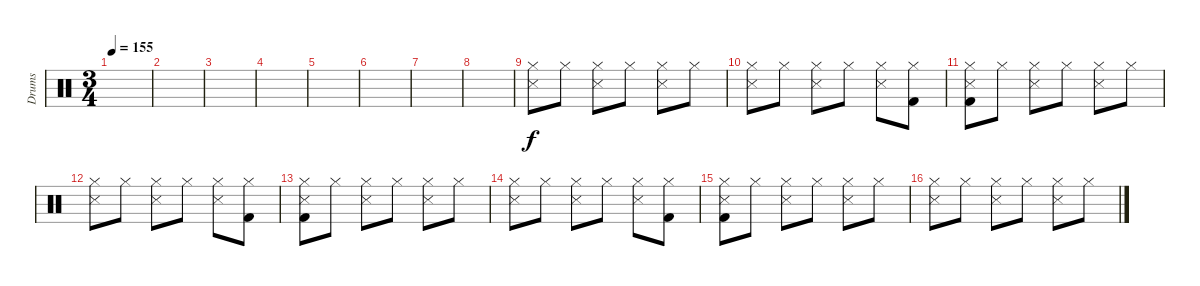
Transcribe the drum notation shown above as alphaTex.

\track ("Drums" "Drums") {instrument percussion}
\staff {score}
\articulation defaults
\ts (3 4)
\tempo 155
\clef neutral
\ks c
|
|
|
|
|
|
|
|
("Hi-Hat (closed)" "Snare (side stick) 3").8 "Hi-Hat (closed)".8 ("Hi-Hat (closed)" "Snare (side stick) 3").8 "Hi-Hat (closed)".8 ("Snare (side stick) 3" "Hi-Hat (closed)").8 "Hi-Hat (closed)".8 |
("Hi-Hat (closed)" "Snare (side stick) 3").8 "Hi-Hat (closed)".8 ("Hi-Hat (closed)" "Snare (side stick) 3").8 "Hi-Hat (closed)".8 ("Snare (side stick) 3" "Hi-Hat (closed)").8 ("Kick (hit) 2" "Hi-Hat (closed)").8 |
("Hi-Hat (closed)" "Snare (side stick) 3" "Kick (hit) 2").8 "Hi-Hat (closed)".8 ("Hi-Hat (closed)" "Snare (side stick) 3").8 "Hi-Hat (closed)".8 ("Snare (side stick) 3" "Hi-Hat (closed)").8 "Hi-Hat (closed)".8 |
("Hi-Hat (closed)" "Snare (side stick) 3").8 "Hi-Hat (closed)".8 ("Hi-Hat (closed)" "Snare (side stick) 3").8 "Hi-Hat (closed)".8 ("Snare (side stick) 3" "Hi-Hat (closed)").8 ("Kick (hit) 2" "Hi-Hat (closed)").8 |
("Hi-Hat (closed)" "Snare (side stick) 3" "Kick (hit) 2").8 "Hi-Hat (closed)".8 ("Hi-Hat (closed)" "Snare (side stick) 3").8 "Hi-Hat (closed)".8 ("Snare (side stick) 3" "Hi-Hat (closed)").8 "Hi-Hat (closed)".8 |
("Hi-Hat (closed)" "Snare (side stick) 3").8 "Hi-Hat (closed)".8 ("Hi-Hat (closed)" "Snare (side stick) 3").8 "Hi-Hat (closed)".8 ("Snare (side stick) 3" "Hi-Hat (closed)").8 ("Kick (hit) 2" "Hi-Hat (closed)").8 |
("Hi-Hat (closed)" "Snare (side stick) 3" "Kick (hit) 2").8 "Hi-Hat (closed)".8 ("Hi-Hat (closed)" "Snare (side stick) 3").8 "Hi-Hat (closed)".8 ("Snare (side stick) 3" "Hi-Hat (closed)").8 "Hi-Hat (closed)".8 |
("Hi-Hat (closed)" "Snare (side stick) 3").8 "Hi-Hat (closed)".8 ("Hi-Hat (closed)" "Snare (side stick) 3").8 "Hi-Hat (closed)".8 ("Snare (side stick) 3" "Hi-Hat (closed)").8 "Hi-Hat (closed)".8
